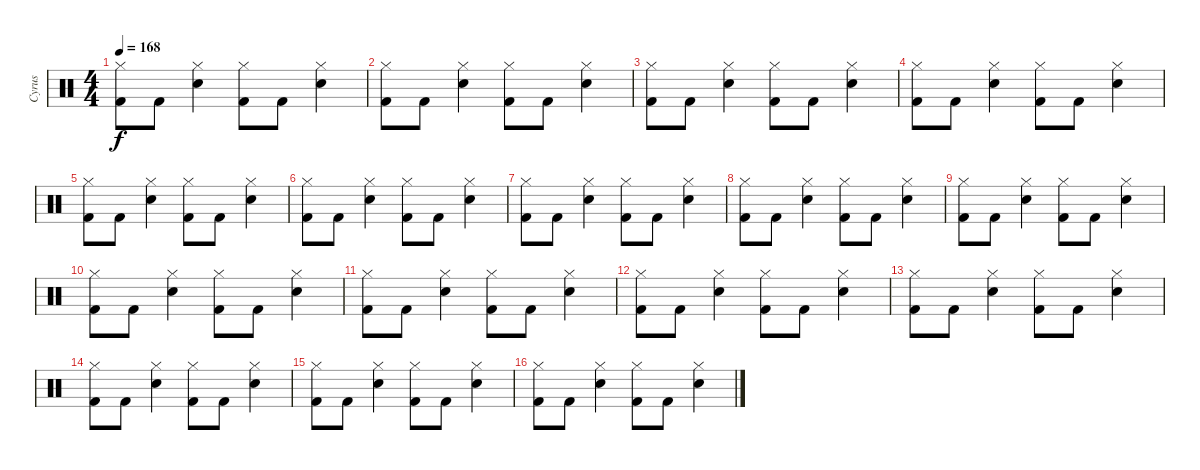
\track ("Cyrus" "Cyrus") {instrument percussion}
\staff {score}
\articulation defaults
\ts (4 4)
\tempo 168
\clef neutral
\ks c
("Hi-Hat (closed)" "Kick (hit) 2").8{dy f} "Kick (hit) 2".8 ("Hi-Hat (closed)" "Snare (hit) 2").4 ("Hi-Hat (closed)" "Kick (hit) 2").8 "Kick (hit) 2".8 ("Hi-Hat (closed)" "Snare (hit) 2").4 |
("Hi-Hat (closed)" "Kick (hit) 2").8 "Kick (hit) 2".8 ("Hi-Hat (closed)" "Snare (hit) 2").4 ("Hi-Hat (closed)" "Kick (hit) 2").8 "Kick (hit) 2".8 ("Hi-Hat (closed)" "Snare (hit) 2").4 |
("Hi-Hat (closed)" "Kick (hit) 2").8 "Kick (hit) 2".8 ("Hi-Hat (closed)" "Snare (hit) 2").4 ("Hi-Hat (closed)" "Kick (hit) 2").8 "Kick (hit) 2".8 ("Hi-Hat (closed)" "Snare (hit) 2").4 |
("Hi-Hat (closed)" "Kick (hit) 2").8 "Kick (hit) 2".8 ("Hi-Hat (closed)" "Snare (hit) 2").4 ("Hi-Hat (closed)" "Kick (hit) 2").8 "Kick (hit) 2".8 ("Hi-Hat (closed)" "Snare (hit) 2").4 |
("Hi-Hat (closed)" "Kick (hit) 2").8 "Kick (hit) 2".8 ("Hi-Hat (closed)" "Snare (hit) 2").4 ("Hi-Hat (closed)" "Kick (hit) 2").8 "Kick (hit) 2".8 ("Hi-Hat (closed)" "Snare (hit) 2").4 |
("Hi-Hat (closed)" "Kick (hit) 2").8 "Kick (hit) 2".8 ("Hi-Hat (closed)" "Snare (hit) 2").4 ("Hi-Hat (closed)" "Kick (hit) 2").8 "Kick (hit) 2".8 ("Hi-Hat (closed)" "Snare (hit) 2").4 |
("Hi-Hat (closed)" "Kick (hit) 2").8 "Kick (hit) 2".8 ("Hi-Hat (closed)" "Snare (hit) 2").4 ("Hi-Hat (closed)" "Kick (hit) 2").8 "Kick (hit) 2".8 ("Hi-Hat (closed)" "Snare (hit) 2").4 |
("Hi-Hat (closed)" "Kick (hit) 2").8 "Kick (hit) 2".8 ("Hi-Hat (closed)" "Snare (hit) 2").4 ("Hi-Hat (closed)" "Kick (hit) 2").8 "Kick (hit) 2".8 ("Hi-Hat (closed)" "Snare (hit) 2").4 |
("Hi-Hat (closed)" "Kick (hit) 2").8 "Kick (hit) 2".8 ("Hi-Hat (closed)" "Snare (hit) 2").4 ("Hi-Hat (closed)" "Kick (hit) 2").8 "Kick (hit) 2".8 ("Hi-Hat (closed)" "Snare (hit) 2").4 |
("Hi-Hat (closed)" "Kick (hit) 2").8 "Kick (hit) 2".8 ("Hi-Hat (closed)" "Snare (hit) 2").4 ("Hi-Hat (closed)" "Kick (hit) 2").8 "Kick (hit) 2".8 ("Hi-Hat (closed)" "Snare (hit) 2").4 |
("Hi-Hat (closed)" "Kick (hit) 2").8 "Kick (hit) 2".8 ("Hi-Hat (closed)" "Snare (hit) 2").4 ("Hi-Hat (closed)" "Kick (hit) 2").8 "Kick (hit) 2".8 ("Hi-Hat (closed)" "Snare (hit) 2").4 |
("Hi-Hat (closed)" "Kick (hit) 2").8 "Kick (hit) 2".8 ("Hi-Hat (closed)" "Snare (hit) 2").4 ("Hi-Hat (closed)" "Kick (hit) 2").8 "Kick (hit) 2".8 ("Hi-Hat (closed)" "Snare (hit) 2").4 |
("Hi-Hat (closed)" "Kick (hit) 2").8 "Kick (hit) 2".8 ("Hi-Hat (closed)" "Snare (hit) 2").4 ("Hi-Hat (closed)" "Kick (hit) 2").8 "Kick (hit) 2".8 ("Hi-Hat (closed)" "Snare (hit) 2").4 |
("Hi-Hat (closed)" "Kick (hit) 2").8 "Kick (hit) 2".8 ("Hi-Hat (closed)" "Snare (hit) 2").4 ("Hi-Hat (closed)" "Kick (hit) 2").8 "Kick (hit) 2".8 ("Hi-Hat (closed)" "Snare (hit) 2").4 |
("Hi-Hat (closed)" "Kick (hit) 2").8 "Kick (hit) 2".8 ("Hi-Hat (closed)" "Snare (hit) 2").4 ("Hi-Hat (closed)" "Kick (hit) 2").8 "Kick (hit) 2".8 ("Hi-Hat (closed)" "Snare (hit) 2").4 |
("Hi-Hat (closed)" "Kick (hit) 2").8 "Kick (hit) 2".8 ("Hi-Hat (closed)" "Snare (hit) 2").4 ("Hi-Hat (closed)" "Kick (hit) 2").8 "Kick (hit) 2".8 ("Hi-Hat (closed)" "Snare (hit) 2").4
